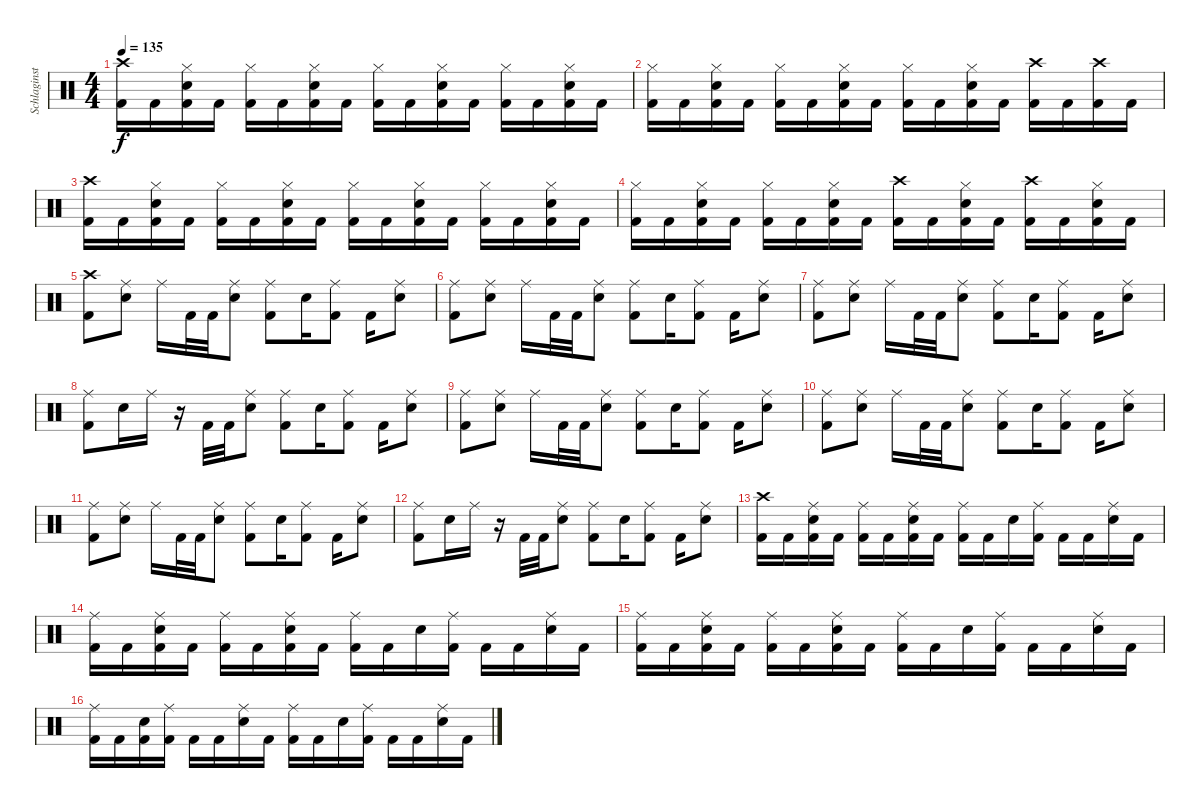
\track ("Schlaginstrumente - Auswahl" "Schlaginst") {instrument percussion}
\staff {score}
\articulation defaults
\ts (4 4)
\tempo 135
\clef neutral
\ks c
("Crash high (hit)" "Kick (hit) 2").16{dy f} "Kick (hit) 2".16 ("Hi-Hat (closed)" "Snare (hit) 2" "Kick (hit) 2").16 "Kick (hit) 2".16 ("Hi-Hat (closed)" "Kick (hit) 2").16 "Kick (hit) 2".16 ("Hi-Hat (closed)" "Snare (hit) 2" "Kick (hit) 2").16 "Kick (hit) 2".16 ("Hi-Hat (closed)" "Kick (hit) 2").16 "Kick (hit) 2".16 ("Hi-Hat (closed)" "Snare (hit) 2" "Kick (hit) 2").16 "Kick (hit) 2".16 ("Hi-Hat (closed)" "Kick (hit) 2").16 "Kick (hit) 2".16 ("Hi-Hat (closed)" "Snare (hit) 2" "Kick (hit) 2").16 "Kick (hit) 2".16 |
("Hi-Hat (closed)" "Kick (hit) 2").16 "Kick (hit) 2".16 ("Hi-Hat (closed)" "Snare (hit) 2" "Kick (hit) 2").16 "Kick (hit) 2".16 ("Hi-Hat (closed)" "Kick (hit) 2").16 "Kick (hit) 2".16 ("Hi-Hat (closed)" "Snare (hit) 2" "Kick (hit) 2").16 "Kick (hit) 2".16 ("Hi-Hat (closed)" "Kick (hit) 2").16 "Kick (hit) 2".16 ("Hi-Hat (closed)" "Snare (hit) 2" "Kick (hit) 2").16 "Kick (hit) 2".16 ("Crash high (hit)" "Kick (hit) 2").16 "Kick (hit) 2".16 ("Crash high (hit)" "Kick (hit) 2").16 "Kick (hit) 2".16 |
("Crash high (hit)" "Kick (hit) 2").16 "Kick (hit) 2".16 ("Hi-Hat (closed)" "Snare (hit) 2" "Kick (hit) 2").16 "Kick (hit) 2".16 ("Hi-Hat (closed)" "Kick (hit) 2").16 "Kick (hit) 2".16 ("Hi-Hat (closed)" "Snare (hit) 2" "Kick (hit) 2").16 "Kick (hit) 2".16 ("Hi-Hat (closed)" "Kick (hit) 2").16 "Kick (hit) 2".16 ("Hi-Hat (closed)" "Snare (hit) 2" "Kick (hit) 2").16 "Kick (hit) 2".16 ("Hi-Hat (closed)" "Kick (hit) 2").16 "Kick (hit) 2".16 ("Hi-Hat (closed)" "Snare (hit) 2" "Kick (hit) 2").16 "Kick (hit) 2".16 |
("Hi-Hat (closed)" "Kick (hit) 2").16 "Kick (hit) 2".16 ("Hi-Hat (closed)" "Snare (hit) 2" "Kick (hit) 2").16 "Kick (hit) 2".16 ("Hi-Hat (closed)" "Kick (hit) 2").16 "Kick (hit) 2".16 ("Hi-Hat (closed)" "Snare (hit) 2" "Kick (hit) 2").16 "Kick (hit) 2".16 ("Crash high (hit)" "Kick (hit) 2").16 "Kick (hit) 2".16 ("Hi-Hat (closed)" "Snare (hit) 2" "Kick (hit) 2").16 "Kick (hit) 2".16 ("Crash high (hit)" "Kick (hit) 2").16 "Kick (hit) 2".16 ("Hi-Hat (closed)" "Snare (hit) 2" "Kick (hit) 2").16 "Kick (hit) 2".16 |
("Crash high (hit)" "Kick (hit) 2").8 ("Ride (middle)" "Snare (hit) 2").8 "Ride (middle)".16 "Kick (hit) 2".32 "Kick (hit) 2".32 ("Ride (middle)" "Snare (hit) 2").8 ("Ride (middle)" "Kick (hit) 2").8 "Snare (hit) 2".16 ("Ride (middle)" "Kick (hit) 2").8 "Kick (hit) 2".16 ("Ride (middle)" "Snare (hit) 2").8 |
("Ride (middle)" "Kick (hit) 2").8 ("Ride (middle)" "Snare (hit) 2").8 "Ride (middle)".16 "Kick (hit) 2".32 "Kick (hit) 2".32 ("Ride (middle)" "Snare (hit) 2").8 ("Ride (middle)" "Kick (hit) 2").8 "Snare (hit) 2".16 ("Ride (middle)" "Kick (hit) 2").8 "Kick (hit) 2".16 ("Ride (middle)" "Snare (hit) 2").8 |
("Ride (middle)" "Kick (hit) 2").8 ("Ride (middle)" "Snare (hit) 2").8 "Ride (middle)".16 "Kick (hit) 2".32 "Kick (hit) 2".32 ("Ride (middle)" "Snare (hit) 2").8 ("Ride (middle)" "Kick (hit) 2").8 "Snare (hit) 2".16 ("Ride (middle)" "Kick (hit) 2").8 "Kick (hit) 2".16 ("Ride (middle)" "Snare (hit) 2").8 |
("Ride (middle)" "Kick (hit) 2").8 "Snare (hit) 2".16 "Ride (middle)".16 r.16 "Kick (hit) 2".32 "Kick (hit) 2".32 ("Ride (middle)" "Snare (hit) 2").8 ("Ride (middle)" "Kick (hit) 2").8 "Snare (hit) 2".16 ("Ride (middle)" "Kick (hit) 2").8 "Kick (hit) 2".16 ("Ride (middle)" "Snare (hit) 2").8 |
("Ride (middle)" "Kick (hit) 2").8 ("Ride (middle)" "Snare (hit) 2").8 "Ride (middle)".16 "Kick (hit) 2".32 "Kick (hit) 2".32 ("Ride (middle)" "Snare (hit) 2").8 ("Ride (middle)" "Kick (hit) 2").8 "Snare (hit) 2".16 ("Ride (middle)" "Kick (hit) 2").8 "Kick (hit) 2".16 ("Ride (middle)" "Snare (hit) 2").8 |
("Ride (middle)" "Kick (hit) 2").8 ("Ride (middle)" "Snare (hit) 2").8 "Ride (middle)".16 "Kick (hit) 2".32 "Kick (hit) 2".32 ("Ride (middle)" "Snare (hit) 2").8 ("Ride (middle)" "Kick (hit) 2").8 "Snare (hit) 2".16 ("Ride (middle)" "Kick (hit) 2").8 "Kick (hit) 2".16 ("Ride (middle)" "Snare (hit) 2").8 |
("Ride (middle)" "Kick (hit) 2").8 ("Ride (middle)" "Snare (hit) 2").8 "Ride (middle)".16 "Kick (hit) 2".32 "Kick (hit) 2".32 ("Ride (middle)" "Snare (hit) 2").8 ("Ride (middle)" "Kick (hit) 2").8 "Snare (hit) 2".16 ("Ride (middle)" "Kick (hit) 2").8 "Kick (hit) 2".16 ("Ride (middle)" "Snare (hit) 2").8 |
("Ride (middle)" "Kick (hit) 2").8 "Snare (hit) 2".16 "Ride (middle)".16 r.16 "Kick (hit) 2".32 "Kick (hit) 2".32 ("Ride (middle)" "Snare (hit) 2").8 ("Ride (middle)" "Kick (hit) 2").8 "Snare (hit) 2".16 ("Ride (middle)" "Kick (hit) 2").8 "Kick (hit) 2".16 ("Ride (middle)" "Snare (hit) 2").8 |
("Crash high (hit)" "Kick (hit) 2").16 "Kick (hit) 2".16 ("Ride (middle)" "Snare (hit) 2" "Kick (hit) 2").16 "Kick (hit) 2".16 ("Ride (middle)" "Kick (hit) 2").16 "Kick (hit) 2".16 ("Ride (middle)" "Snare (hit) 2" "Kick (hit) 2").16 "Kick (hit) 2".16 ("Ride (middle)" "Kick (hit) 2").16 "Kick (hit) 2".16 "Snare (hit) 2".16 ("Ride (middle)" "Kick (hit) 2").16 "Kick (hit) 2".16 "Kick (hit) 2".16 ("Ride (middle)" "Snare (hit) 2").16 "Kick (hit) 2".16 |
("Ride (middle)" "Kick (hit) 2").16 "Kick (hit) 2".16 ("Ride (middle)" "Snare (hit) 2" "Kick (hit) 2").16 "Kick (hit) 2".16 ("Ride (middle)" "Kick (hit) 2").16 "Kick (hit) 2".16 ("Ride (middle)" "Snare (hit) 2" "Kick (hit) 2").16 "Kick (hit) 2".16 ("Ride (middle)" "Kick (hit) 2").16 "Kick (hit) 2".16 "Snare (hit) 2".16 ("Ride (middle)" "Kick (hit) 2").16 "Kick (hit) 2".16 "Kick (hit) 2".16 ("Ride (middle)" "Snare (hit) 2").16 "Kick (hit) 2".16 |
("Ride (middle)" "Kick (hit) 2").16 "Kick (hit) 2".16 ("Ride (middle)" "Snare (hit) 2" "Kick (hit) 2").16 "Kick (hit) 2".16 ("Ride (middle)" "Kick (hit) 2").16 "Kick (hit) 2".16 ("Ride (middle)" "Snare (hit) 2" "Kick (hit) 2").16 "Kick (hit) 2".16 ("Ride (middle)" "Kick (hit) 2").16 "Kick (hit) 2".16 "Snare (hit) 2".16 ("Ride (middle)" "Kick (hit) 2").16 "Kick (hit) 2".16 "Kick (hit) 2".16 ("Ride (middle)" "Snare (hit) 2").16 "Kick (hit) 2".16 |
("Ride (middle)" "Kick (hit) 2").16 "Kick (hit) 2".16 ("Snare (hit) 2" "Kick (hit) 2").16 ("Ride (middle)" "Kick (hit) 2").16 "Kick (hit) 2".16 "Kick (hit) 2".16 ("Ride (middle)" "Snare (hit) 2").16 "Kick (hit) 2".16 ("Ride (middle)" "Kick (hit) 2").16 "Kick (hit) 2".16 "Snare (hit) 2".16 ("Ride (middle)" "Kick (hit) 2").16 "Kick (hit) 2".16 "Kick (hit) 2".16 ("Ride (middle)" "Snare (hit) 2").16 "Kick (hit) 2".16
